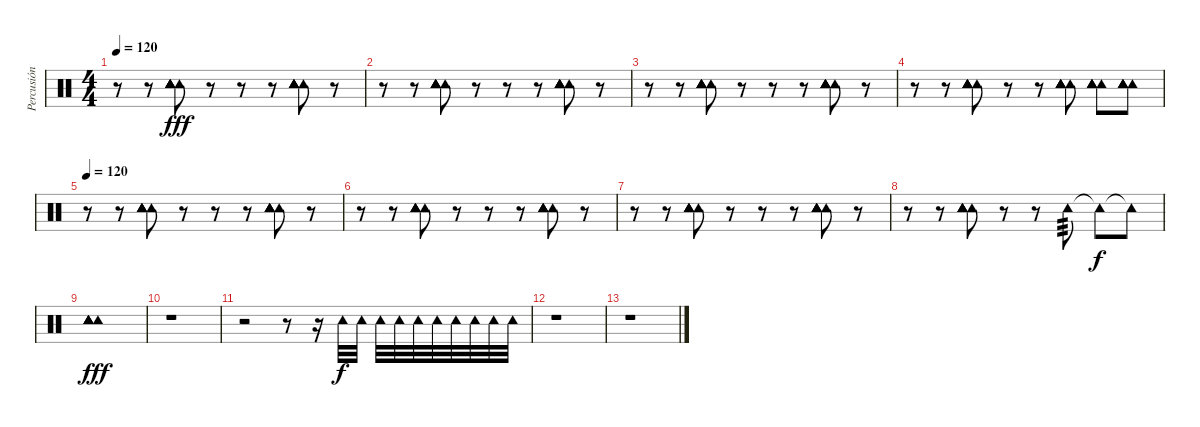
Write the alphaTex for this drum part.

\track ("Percusión " "Percusión ") {instrument percussion}
\staff {score}
\articulation defaults
\ts (4 4)
\tempo 120
\clef neutral
\ks c
r.8{dy fff} r.8 ("Tambourine (hit)" "Tambourine (hit)" "Tambourine (hit)" "Tambourine (hit)" "Tambourine (hit)" "Tambourine (hit)").8 r.8 r.8 r.8 ("Tambourine (hit)" "Tambourine (hit)" "Tambourine (hit)" "Tambourine (hit)" "Tambourine (hit)" "Tambourine (hit)").8 r.8 |
r.8 r.8 ("Tambourine (hit)" "Tambourine (hit)" "Tambourine (hit)" "Tambourine (hit)" "Tambourine (hit)" "Tambourine (hit)").8 r.8 r.8 r.8 ("Tambourine (hit)" "Tambourine (hit)" "Tambourine (hit)" "Tambourine (hit)" "Tambourine (hit)" "Tambourine (hit)").8 r.8 |
r.8 r.8 ("Tambourine (hit)" "Tambourine (hit)" "Tambourine (hit)" "Tambourine (hit)" "Tambourine (hit)" "Tambourine (hit)").8 r.8 r.8 r.8 ("Tambourine (hit)" "Tambourine (hit)" "Tambourine (hit)" "Tambourine (hit)" "Tambourine (hit)" "Tambourine (hit)").8 r.8 |
r.8 r.8 ("Tambourine (hit)" "Tambourine (hit)" "Tambourine (hit)" "Tambourine (hit)" "Tambourine (hit)" "Tambourine (hit)").8 r.8 r.8 ("Tambourine (hit)" "Tambourine (hit)" "Tambourine (hit)" "Tambourine (hit)" "Tambourine (hit)" "Tambourine (hit)").8 ("Tambourine (hit)" "Tambourine (hit)" "Tambourine (hit)" "Tambourine (hit)" "Tambourine (hit)" "Tambourine (hit)").8 ("Tambourine (hit)" "Tambourine (hit)" "Tambourine (hit)" "Tambourine (hit)" "Tambourine (hit)" "Tambourine (hit)").8 |
\tempo 120
r.8 r.8 ("Tambourine (hit)" "Tambourine (hit)" "Tambourine (hit)" "Tambourine (hit)" "Tambourine (hit)" "Tambourine (hit)").8 r.8 r.8 r.8 ("Tambourine (hit)" "Tambourine (hit)" "Tambourine (hit)" "Tambourine (hit)" "Tambourine (hit)" "Tambourine (hit)").8 r.8 |
r.8 r.8 ("Tambourine (hit)" "Tambourine (hit)" "Tambourine (hit)" "Tambourine (hit)" "Tambourine (hit)" "Tambourine (hit)").8 r.8 r.8 r.8 ("Tambourine (hit)" "Tambourine (hit)" "Tambourine (hit)" "Tambourine (hit)" "Tambourine (hit)" "Tambourine (hit)").8 r.8 |
r.8 r.8 ("Tambourine (hit)" "Tambourine (hit)" "Tambourine (hit)" "Tambourine (hit)" "Tambourine (hit)" "Tambourine (hit)").8 r.8 r.8 r.8 ("Tambourine (hit)" "Tambourine (hit)" "Tambourine (hit)" "Tambourine (hit)" "Tambourine (hit)" "Tambourine (hit)").8 r.8 |
r.8 r.8 ("Tambourine (hit)" "Tambourine (hit)" "Tambourine (hit)" "Tambourine (hit)" "Tambourine (hit)" "Tambourine (hit)").8 r.8 r.8 "Tambourine (hit)".8{tp 3} "Tambourine (hit)"{t}.8{dy f} "Tambourine (hit)"{t}.8 |
("Tambourine (hit)" "Tambourine (hit)" "Tambourine (hit)" "Tambourine (hit)" "Tambourine (hit)" "Tambourine (hit)").1{dy fff} |
r.1 |
r.2 r.8 r.16 "Tambourine (hit)".32{dy f} "Tambourine (hit)".32 "Tambourine (hit)".32 "Tambourine (hit)".32 "Tambourine (hit)".32 "Tambourine (hit)".32 "Tambourine (hit)".32 "Tambourine (hit)".32 "Tambourine (hit)".32 "Tambourine (hit)".32 |
r.1 |
r.1
